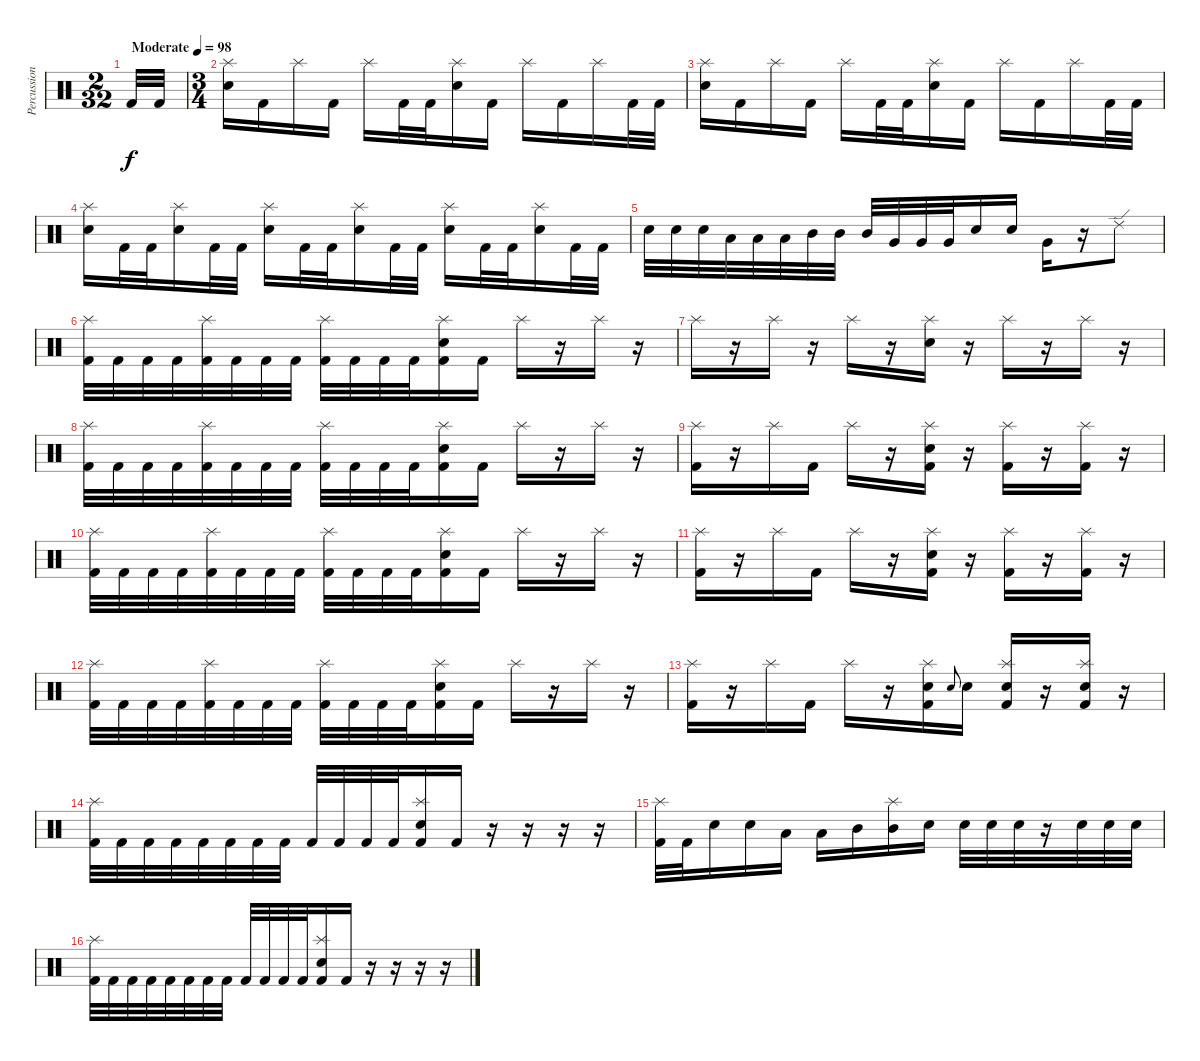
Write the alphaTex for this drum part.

\track ("Percussion" "Percussion") {instrument percussion}
\staff {score}
\articulation defaults
\ts (2 32)
\tempo (98 "Moderate")
\clef neutral
\ks c "Kick (hit) 2".32{dy f} "Kick (hit) 2".32
|
\ts (3 4)
("Splash (hit)" "Snare (hit) 2").16 "Kick (hit) 2".16 "Splash (hit)".16 "Kick (hit) 2".16 "Splash (hit)".16 "Kick (hit) 2".32 "Kick (hit) 2".32 ("Splash (hit)" "Snare (hit) 2").16 "Kick (hit) 2".16 "Splash (hit)".16 "Kick (hit) 2".16 "Splash (hit)".16 "Kick (hit) 2".32 "Kick (hit) 2".32 |
("Splash (hit)" "Snare (hit) 2").16 "Kick (hit) 2".16 "Splash (hit)".16 "Kick (hit) 2".16 "Splash (hit)".16 "Kick (hit) 2".32 "Kick (hit) 2".32 ("Splash (hit)" "Snare (hit) 2").16 "Kick (hit) 2".16 "Splash (hit)".16 "Kick (hit) 2".16 "Splash (hit)".16 "Kick (hit) 2".32 "Kick (hit) 2".32 |
("Splash (hit)" "Snare (hit) 2").16 "Kick (hit) 2".32 "Kick (hit) 2".32 ("Splash (hit)" "Snare (hit) 2").16 "Kick (hit) 2".32 "Kick (hit) 2".32 ("Splash (hit)" "Snare (hit) 2").16 "Kick (hit) 2".32 "Kick (hit) 2".32 ("Splash (hit)" "Snare (hit) 2").16 "Kick (hit) 2".32 "Kick (hit) 2".32 ("Splash (hit)" "Snare (hit) 2").16 "Kick (hit) 2".32 "Kick (hit) 2".32 ("Splash (hit)" "Snare (hit) 2").16 "Kick (hit) 2".32 "Kick (hit) 2".32 |
"Snare (hit) 2".32 "Snare (hit) 2".32 "Snare (hit) 2".32 "Low Tom (hit)".32 "Low Tom (hit)".32 "Low Tom (hit)".32 "Mid Tom (hit)".32 "Mid Tom (hit)".32 "Mid Tom (hit)".32 "Very Low Tom (hit)".32 "Very Low Tom (hit)".32 "Very Low Tom (hit)".32 "Snare (hit) 2".16 "Snare (hit) 2".16 "Very Low Tom (hit)".16 r.16 "Ride (edge) 2".8 |
("Splash (hit)" "Kick (hit) 2").32 "Kick (hit) 2".32 "Kick (hit) 2".32 "Kick (hit) 2".32 ("Splash (hit)" "Kick (hit) 2").32 "Kick (hit) 2".32 "Kick (hit) 2".32 "Kick (hit) 2".32 ("Splash (hit)" "Kick (hit) 2").32 "Kick (hit) 2".32 "Kick (hit) 2".32 "Kick (hit) 2".32 ("Splash (hit)" "Snare (hit) 2" "Kick (hit) 2").16 "Kick (hit) 2".16 "Splash (hit)".16 r.16 "Splash (hit)".16 r.16 |
"Splash (hit)".16 r.16 "Splash (hit)".16 r.16 "Splash (hit)".16 r.16 ("Splash (hit)" "Snare (hit) 2").16 r.16 "Splash (hit)".16 r.16 "Splash (hit)".16 r.16 |
("Splash (hit)" "Kick (hit) 2").32 "Kick (hit) 2".32 "Kick (hit) 2".32 "Kick (hit) 2".32 ("Splash (hit)" "Kick (hit) 2").32 "Kick (hit) 2".32 "Kick (hit) 2".32 "Kick (hit) 2".32 ("Splash (hit)" "Kick (hit) 2").32 "Kick (hit) 2".32 "Kick (hit) 2".32 "Kick (hit) 2".32 ("Splash (hit)" "Snare (hit) 2" "Kick (hit) 2").16 "Kick (hit) 2".16 "Splash (hit)".16 r.16 "Splash (hit)".16 r.16 |
("Splash (hit)" "Kick (hit) 2").16 r.16 "Splash (hit)".16 "Kick (hit) 2".16 "Splash (hit)".16 r.16 ("Splash (hit)" "Snare (hit) 2" "Kick (hit) 2").16 r.16 ("Splash (hit)" "Kick (hit) 2").16 r.16 ("Splash (hit)" "Kick (hit) 2").16 r.16 |
("Splash (hit)" "Kick (hit) 2").32 "Kick (hit) 2".32 "Kick (hit) 2".32 "Kick (hit) 2".32 ("Splash (hit)" "Kick (hit) 2").32 "Kick (hit) 2".32 "Kick (hit) 2".32 "Kick (hit) 2".32 ("Splash (hit)" "Kick (hit) 2").32 "Kick (hit) 2".32 "Kick (hit) 2".32 "Kick (hit) 2".32 ("Splash (hit)" "Snare (hit) 2" "Kick (hit) 2").16 "Kick (hit) 2".16 "Splash (hit)".16 r.16 "Splash (hit)".16 r.16 |
("Splash (hit)" "Kick (hit) 2").16 r.16 "Splash (hit)".16 "Kick (hit) 2".16 "Splash (hit)".16 r.16 ("Splash (hit)" "Snare (hit) 2" "Kick (hit) 2").16 r.16 ("Splash (hit)" "Kick (hit) 2").16 r.16 ("Splash (hit)" "Kick (hit) 2").16 r.16 |
("Splash (hit)" "Kick (hit) 2").32 "Kick (hit) 2".32 "Kick (hit) 2".32 "Kick (hit) 2".32 ("Splash (hit)" "Kick (hit) 2").32 "Kick (hit) 2".32 "Kick (hit) 2".32 "Kick (hit) 2".32 ("Splash (hit)" "Kick (hit) 2").32 "Kick (hit) 2".32 "Kick (hit) 2".32 "Kick (hit) 2".32 ("Splash (hit)" "Snare (hit) 2" "Kick (hit) 2").16 "Kick (hit) 2".16 "Splash (hit)".16 r.16 "Splash (hit)".16 r.16 |
("Splash (hit)" "Kick (hit) 2").16 r.16 "Splash (hit)".16 "Kick (hit) 2".16 "Splash (hit)".16 r.16 ("Splash (hit)" "Snare (hit) 2" "Kick (hit) 2").16 "Snare (hit) 2".8{gr onbeat} "Snare (hit) 2".16 ("Splash (hit)" "Snare (hit) 2" "Kick (hit) 2").16 r.16 ("Splash (hit)" "Snare (hit) 2" "Kick (hit) 2").16 r.16 |
("Splash (hit)" "Kick (hit) 2").32 "Kick (hit) 2".32 "Kick (hit) 2".32 "Kick (hit) 2".32 "Kick (hit) 2".32 "Kick (hit) 2".32 "Kick (hit) 2".32 "Kick (hit) 2".32 "Kick (hit) 2".32 "Kick (hit) 2".32 "Kick (hit) 2".32 "Kick (hit) 2".32 ("Splash (hit)" "Snare (hit) 2" "Kick (hit) 2").16 "Kick (hit) 2".16 r.16 r.16 r.16 r.16 |
("Splash (hit)" "Kick (hit) 2").32 "Kick (hit) 2".32 "Snare (hit) 2".16 "Snare (hit) 2".16 "Low Tom (hit)".16 "Low Tom (hit)".16 "Mid Tom (hit)".16 ("Splash (hit)" "Mid Tom (hit)").16 "Snare (hit) 2".16 "Snare (hit) 2".32 "Snare (hit) 2".32 "Snare (hit) 2".32 r.16 "Snare (hit) 2".32 "Snare (hit) 2".32 "Snare (hit) 2".32 |
("Splash (hit)" "Kick (hit) 2").32 "Kick (hit) 2".32 "Kick (hit) 2".32 "Kick (hit) 2".32 "Kick (hit) 2".32 "Kick (hit) 2".32 "Kick (hit) 2".32 "Kick (hit) 2".32 "Kick (hit) 2".32 "Kick (hit) 2".32 "Kick (hit) 2".32 "Kick (hit) 2".32 ("Splash (hit)" "Snare (hit) 2" "Kick (hit) 2").16 "Kick (hit) 2".16 r.16 r.16 r.16 r.16
